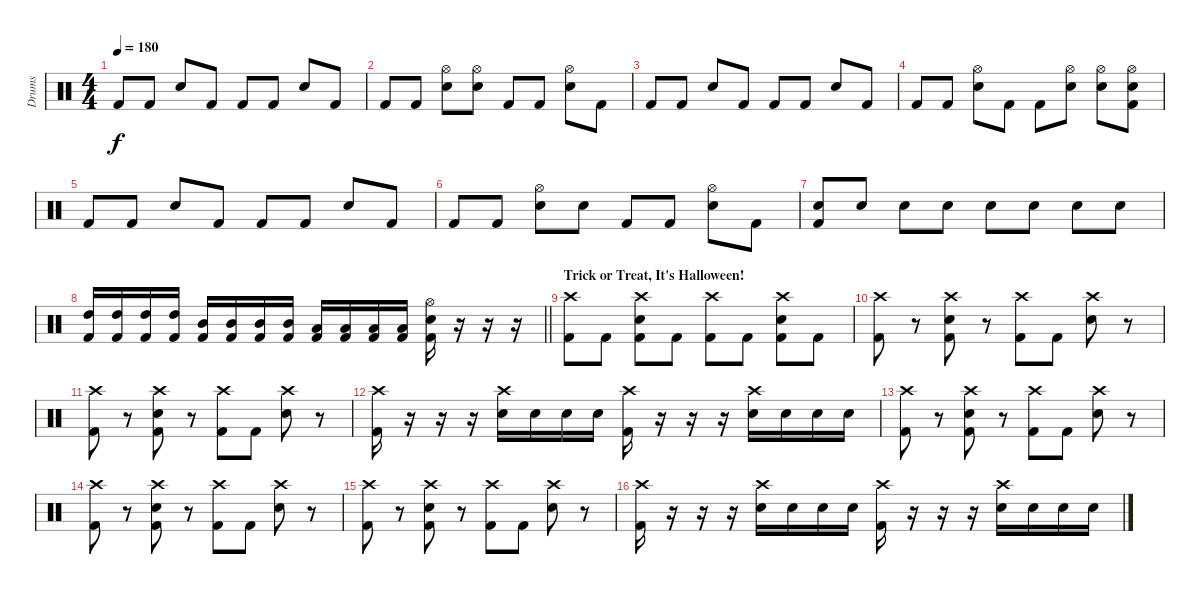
\track ("Drums" "Drums") {instrument percussion}
\staff {score}
\articulation defaults
\ts (4 4)
\tempo 180
\clef neutral
\ks c "Kick (hit) 2".8{dy f} "Kick (hit) 2".8 "Electric Snare (hit)".8 "Kick (hit) 2".8 "Kick (hit) 2".8 "Kick (hit) 2".8 "Electric Snare (hit)".8 "Kick (hit) 2".8
|
"Kick (hit) 2".8 "Kick (hit) 2".8 ("Hi-Hat (open)" "Electric Snare (hit)").8 ("Hi-Hat (open)" "Electric Snare (hit)").8 "Kick (hit) 2".8 "Kick (hit) 2".8 ("Hi-Hat (open)" "Electric Snare (hit)").8 "Kick (hit) 2".8 |
"Kick (hit) 2".8 "Kick (hit) 2".8 "Electric Snare (hit)".8 "Kick (hit) 2".8 "Kick (hit) 2".8 "Kick (hit) 2".8 "Electric Snare (hit)".8 "Kick (hit) 2".8 |
"Kick (hit) 2".8 "Kick (hit) 2".8 ("Hi-Hat (open)" "Electric Snare (hit)").8 "Kick (hit) 2".8 "Kick (hit) 2".8 ("Hi-Hat (open)" "Electric Snare (hit)").8 ("Hi-Hat (open)" "Electric Snare (hit)").8 ("Hi-Hat (open)" "Electric Snare (hit)" "Kick (hit) 2").8 |
"Kick (hit) 2".8 "Kick (hit) 2".8 "Electric Snare (hit)".8 "Kick (hit) 2".8 "Kick (hit) 2".8 "Kick (hit) 2".8 "Electric Snare (hit)".8 "Kick (hit) 2".8 |
"Kick (hit) 2".8 "Kick (hit) 2".8 ("Hi-Hat (open)" "Electric Snare (hit)").8 "Electric Snare (hit)".8 "Kick (hit) 2".8 "Kick (hit) 2".8 ("Hi-Hat (open)" "Electric Snare (hit)").8 "Kick (hit) 2".8 |
("Electric Snare (hit)" "Kick (hit) 2").8 "Electric Snare (hit)".8 "Electric Snare (hit)".8 "Electric Snare (hit)".8 "Electric Snare (hit)".8 "Electric Snare (hit)".8 "Electric Snare (hit)".8 "Electric Snare (hit)".8 |
\barLineRight lightlight
("High Tom (hit)" "Kick (hit) 2").16 ("High Tom (hit)" "Kick (hit) 2").16 ("High Tom (hit)" "Kick (hit) 2").16 ("High Tom (hit)" "Kick (hit) 2").16 ("Mid Tom (hit)" "Kick (hit) 2").16 ("Mid Tom (hit)" "Kick (hit) 2").16 ("Mid Tom (hit)" "Kick (hit) 2").16 ("Mid Tom (hit)" "Kick (hit) 2").16 ("Low Tom (hit)" "Kick (hit) 2").16 ("Low Tom (hit)" "Kick (hit) 2").16 ("Low Tom (hit)" "Kick (hit) 2").16 ("Low Tom (hit)" "Kick (hit) 2").16 ("Hi-Hat (open)" "Electric Snare (hit)" "Kick (hit) 2").16 r.16 r.16 r.16 |
\section ("" "Trick or Treat, It's Halloween!")
("Crash high (hit)" "Kick (hit) 2").8 "Kick (hit) 2".8 ("Crash high (hit)" "Electric Snare (hit)" "Kick (hit) 2").8 "Kick (hit) 2".8 ("Crash high (hit)" "Kick (hit) 2").8 "Kick (hit) 2".8 ("Crash high (hit)" "Electric Snare (hit)" "Kick (hit) 2").8 "Kick (hit) 2".8 |
("Crash high (hit)" "Kick (hit) 2").8 r.8 ("Crash high (hit)" "Electric Snare (hit)" "Kick (hit) 2").8 r.8 ("Crash high (hit)" "Kick (hit) 2").8 "Kick (hit) 2".8 ("Crash high (hit)" "Electric Snare (hit)").8 r.8 |
("Crash high (hit)" "Kick (hit) 2").8 r.8 ("Crash high (hit)" "Electric Snare (hit)" "Kick (hit) 2").8 r.8 ("Crash high (hit)" "Kick (hit) 2").8 "Kick (hit) 2".8 ("Crash high (hit)" "Electric Snare (hit)").8 r.8 |
("Crash high (hit)" "Kick (hit) 2").16 r.16 r.16 r.16 ("Crash high (hit)" "Electric Snare (hit)").16 "Electric Snare (hit)".16 "Electric Snare (hit)".16 "Electric Snare (hit)".16 ("Crash high (hit)" "Kick (hit) 2").16 r.16 r.16 r.16 ("Crash high (hit)" "Electric Snare (hit)").16 "Electric Snare (hit)".16 "Electric Snare (hit)".16 "Electric Snare (hit)".16 |
("Crash high (hit)" "Kick (hit) 2").8 r.8 ("Crash high (hit)" "Electric Snare (hit)" "Kick (hit) 2").8 r.8 ("Crash high (hit)" "Kick (hit) 2").8 "Kick (hit) 2".8 ("Crash high (hit)" "Electric Snare (hit)").8 r.8 |
("Crash high (hit)" "Kick (hit) 2").8 r.8 ("Crash high (hit)" "Electric Snare (hit)" "Kick (hit) 2").8 r.8 ("Crash high (hit)" "Kick (hit) 2").8 "Kick (hit) 2".8 ("Crash high (hit)" "Electric Snare (hit)").8 r.8 |
("Crash high (hit)" "Kick (hit) 2").8 r.8 ("Crash high (hit)" "Electric Snare (hit)" "Kick (hit) 2").8 r.8 ("Crash high (hit)" "Kick (hit) 2").8 "Kick (hit) 2".8 ("Crash high (hit)" "Electric Snare (hit)").8 r.8 |
("Crash high (hit)" "Kick (hit) 2").16 r.16 r.16 r.16 ("Crash high (hit)" "Electric Snare (hit)").16 "Electric Snare (hit)".16 "Electric Snare (hit)".16 "Electric Snare (hit)".16 ("Crash high (hit)" "Kick (hit) 2").16 r.16 r.16 r.16 ("Crash high (hit)" "Electric Snare (hit)").16 "Electric Snare (hit)".16 "Electric Snare (hit)".16 "Electric Snare (hit)".16
